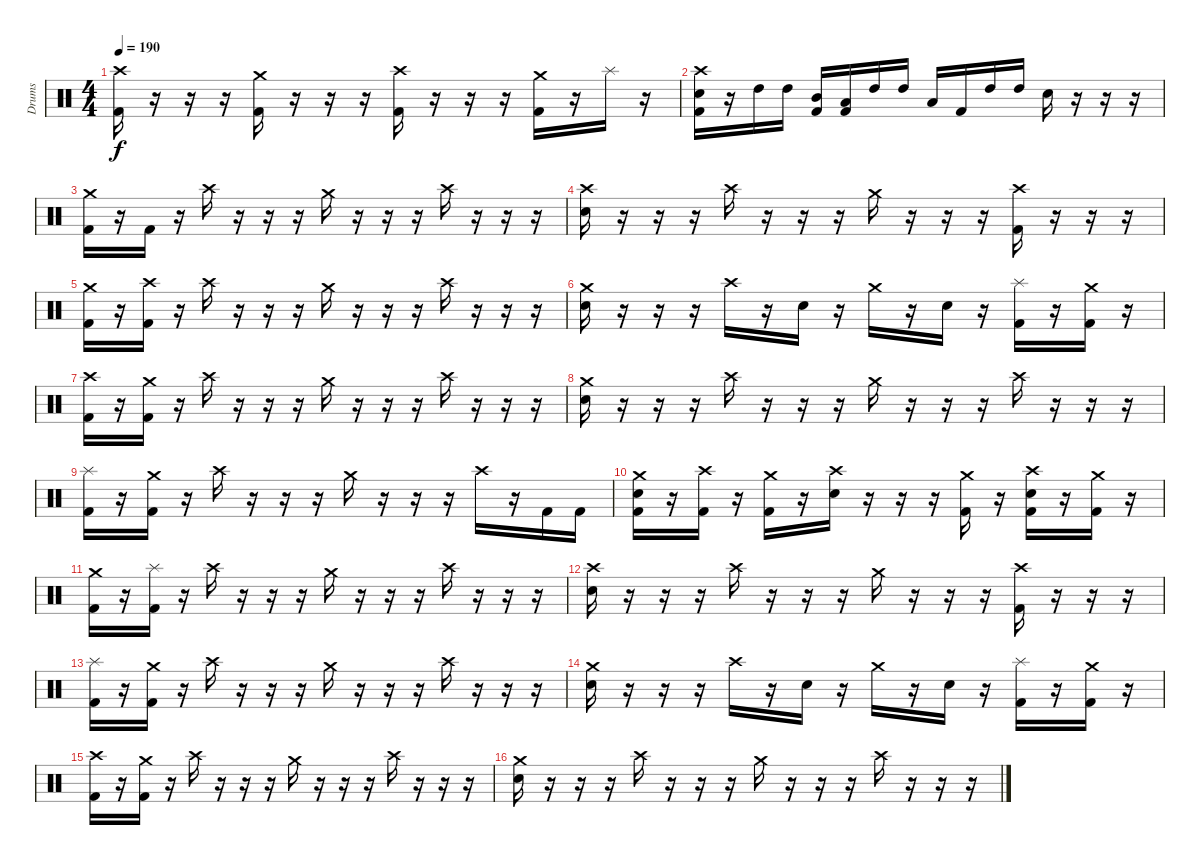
\track ("Drums" "Drums") {instrument percussion}
\staff {score}
\articulation defaults
\ts (4 4)
\tempo 190
\clef neutral
\ks c
("Crash high (hit)" "Kick (hit) 2").16{dy f} r.16 r.16 r.16 ("Crash medium (hit)" "Kick (hit) 2").16 r.16 r.16 r.16 ("Crash high (hit)" "Kick (hit) 2").16 r.16 r.16 r.16 ("Crash medium (hit)" "Kick (hit) 2").16 r.16 "Splash (hit)".16 r.16 |
("Crash high (hit)" "Electric Snare (hit)" "Kick (hit) 2").16 r.16 "High Tom (hit)".16 "High Tom (hit)".16 ("Mid Tom (hit)" "Kick (hit) 2").16 ("Low Tom (hit)" "Kick (hit) 2").16 "High Tom (hit)".16 "High Tom (hit)".16 "Low Tom (hit)".16 "Kick (hit) 2".16 "High Tom (hit)".16 "High Tom (hit)".16 "Electric Snare (hit)".16 r.16 r.16 r.16 |
("Crash medium (hit)" "Kick (hit) 2").16 r.16 "Kick (hit) 2".16 r.16 "Crash high (hit)".16 r.16 r.16 r.16 "Crash medium (hit)".16 r.16 r.16 r.16 "Crash high (hit)".16 r.16 r.16 r.16 |
("Crash high (hit)" "Electric Snare (hit)").16 r.16 r.16 r.16 "Crash high (hit)".16 r.16 r.16 r.16 "Crash medium (hit)".16 r.16 r.16 r.16 ("Crash high (hit)" "Kick (hit) 2").16 r.16 r.16 r.16 |
("Crash medium (hit)" "Kick (hit) 2").16 r.16 ("Crash high (hit)" "Kick (hit) 2").16 r.16 "Crash high (hit)".16 r.16 r.16 r.16 "Crash medium (hit)".16 r.16 r.16 r.16 "Crash high (hit)".16 r.16 r.16 r.16 |
("Crash medium (hit)" "Electric Snare (hit)").16 r.16 r.16 r.16 "Crash high (hit)".16 r.16 "Electric Snare (hit)".16 r.16 "Crash medium (hit)".16 r.16 "Electric Snare (hit)".16 r.16 ("Splash (hit)" "Kick (hit) 2").16 r.16 ("Crash medium (hit)" "Kick (hit) 2").16 r.16 |
("Crash high (hit)" "Kick (hit) 2").16 r.16 ("Crash medium (hit)" "Kick (hit) 2").16 r.16 "Crash high (hit)".16 r.16 r.16 r.16 "Crash medium (hit)".16 r.16 r.16 r.16 "Crash high (hit)".16 r.16 r.16 r.16 |
("Crash medium (hit)" "Electric Snare (hit)").16 r.16 r.16 r.16 "Crash high (hit)".16 r.16 r.16 r.16 "Crash medium (hit)".16 r.16 r.16 r.16 "Crash high (hit)".16 r.16 r.16 r.16 |
("Splash (hit)" "Kick (hit) 2").16 r.16 ("Crash medium (hit)" "Kick (hit) 2").16 r.16 "Crash high (hit)".16 r.16 r.16 r.16 "Crash medium (hit)".16 r.16 r.16 r.16 "Crash high (hit)".16 r.16 "Kick (hit) 2".16 "Kick (hit) 2".16 |
("Crash medium (hit)" "Electric Snare (hit)" "Kick (hit) 2").16 r.16 ("Crash high (hit)" "Kick (hit) 2").16 r.16 ("Crash medium (hit)" "Kick (hit) 2").16 r.16 ("Crash high (hit)" "Electric Snare (hit)").16 r.16 r.16 r.16 ("Crash medium (hit)" "Kick (hit) 2").16 r.16 ("Crash high (hit)" "Electric Snare (hit)" "Kick (hit) 2").16 r.16 ("Crash medium (hit)" "Kick (hit) 2").16 r.16 |
("Crash medium (hit)" "Kick (hit) 2").16 r.16 ("Splash (hit)" "Kick (hit) 2").16 r.16 "Crash high (hit)".16 r.16 r.16 r.16 "Crash medium (hit)".16 r.16 r.16 r.16 "Crash high (hit)".16 r.16 r.16 r.16 |
("Crash high (hit)" "Electric Snare (hit)").16 r.16 r.16 r.16 "Crash high (hit)".16 r.16 r.16 r.16 "Crash medium (hit)".16 r.16 r.16 r.16 ("Crash high (hit)" "Kick (hit) 2").16 r.16 r.16 r.16 |
("Splash (hit)" "Kick (hit) 2").16 r.16 ("Crash medium (hit)" "Kick (hit) 2").16 r.16 "Crash high (hit)".16 r.16 r.16 r.16 "Crash medium (hit)".16 r.16 r.16 r.16 "Crash high (hit)".16 r.16 r.16 r.16 |
("Crash medium (hit)" "Electric Snare (hit)").16 r.16 r.16 r.16 "Crash high (hit)".16 r.16 "Electric Snare (hit)".16 r.16 "Crash medium (hit)".16 r.16 "Electric Snare (hit)".16 r.16 ("Splash (hit)" "Kick (hit) 2").16 r.16 ("Crash medium (hit)" "Kick (hit) 2").16 r.16 |
("Crash high (hit)" "Kick (hit) 2").16 r.16 ("Crash medium (hit)" "Kick (hit) 2").16 r.16 "Crash high (hit)".16 r.16 r.16 r.16 "Crash medium (hit)".16 r.16 r.16 r.16 "Crash high (hit)".16 r.16 r.16 r.16 |
("Crash medium (hit)" "Electric Snare (hit)").16 r.16 r.16 r.16 "Crash high (hit)".16 r.16 r.16 r.16 "Crash medium (hit)".16 r.16 r.16 r.16 "Crash high (hit)".16 r.16 r.16 r.16
